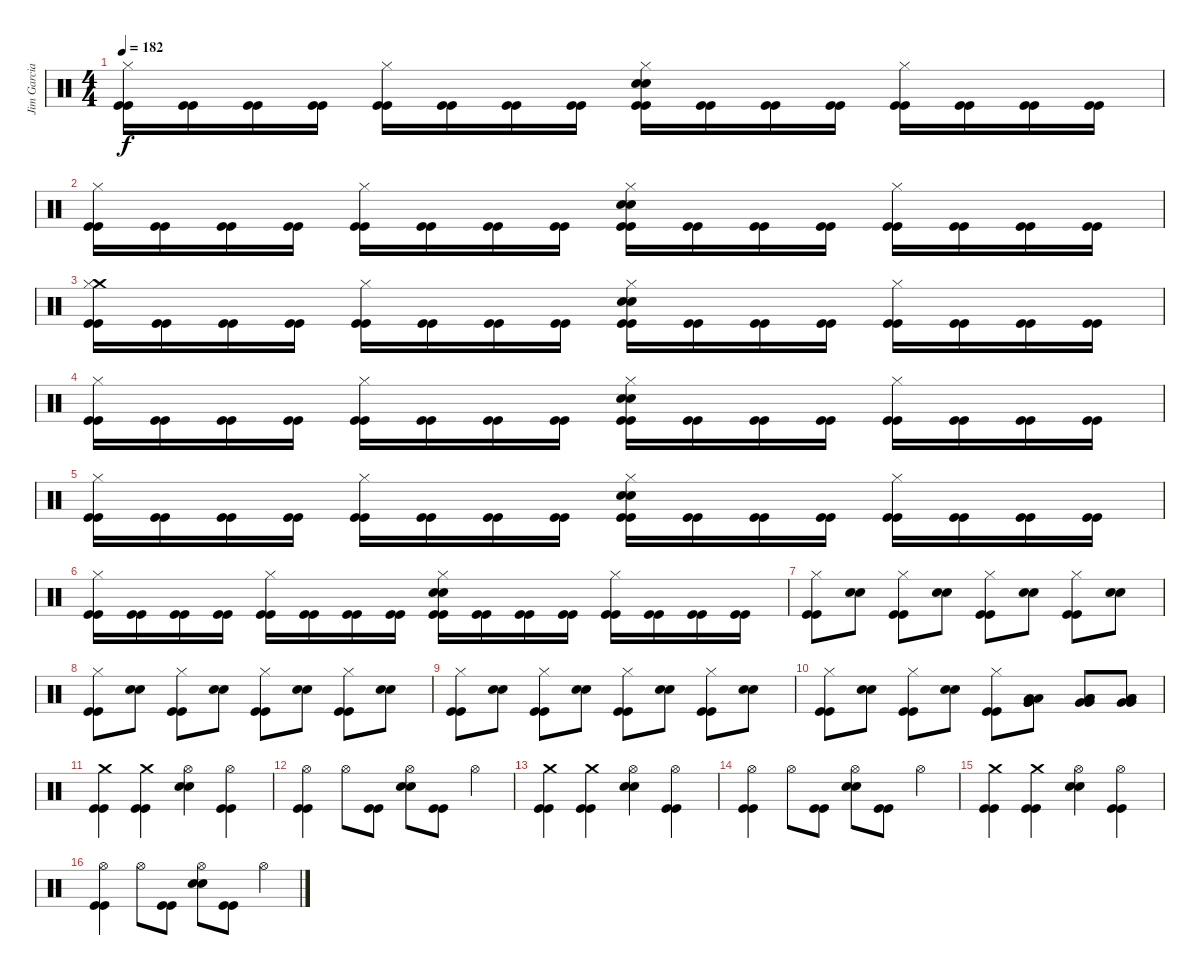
\track ("Jim Garcia" "Jim Garcia") {instrument percussion}
\staff {score}
\articulation defaults
\ts (4 4)
\tempo 182
\clef neutral
\ks c
("Hi-Hat (closed)" "Kick (hit)" "Kick (hit)").16{dy f} ("Kick (hit)" "Kick (hit)").16 ("Kick (hit)" "Kick (hit)").16 ("Kick (hit)" "Kick (hit)").16 ("Hi-Hat (closed)" "Kick (hit)" "Kick (hit)").16 ("Kick (hit)" "Kick (hit)").16 ("Kick (hit)" "Kick (hit)").16 ("Kick (hit)" "Kick (hit)").16 ("Snare (hit) 2" "Snare (hit) 2" "Hi-Hat (closed)" "Kick (hit)" "Kick (hit)").16 ("Kick (hit)" "Kick (hit)").16 ("Kick (hit)" "Kick (hit)").16 ("Kick (hit)" "Kick (hit)").16 ("Hi-Hat (closed)" "Kick (hit)" "Kick (hit)").16 ("Kick (hit)" "Kick (hit)").16 ("Kick (hit)" "Kick (hit)").16 ("Kick (hit)" "Kick (hit)").16 |
("Hi-Hat (closed)" "Kick (hit)" "Kick (hit)").16 ("Kick (hit)" "Kick (hit)").16 ("Kick (hit)" "Kick (hit)").16 ("Kick (hit)" "Kick (hit)").16 ("Hi-Hat (closed)" "Kick (hit)" "Kick (hit)").16 ("Kick (hit)" "Kick (hit)").16 ("Kick (hit)" "Kick (hit)").16 ("Kick (hit)" "Kick (hit)").16 ("Snare (hit) 2" "Snare (hit) 2" "Hi-Hat (closed)" "Kick (hit)" "Kick (hit)").16 ("Kick (hit)" "Kick (hit)").16 ("Kick (hit)" "Kick (hit)").16 ("Kick (hit)" "Kick (hit)").16 ("Hi-Hat (closed)" "Kick (hit)" "Kick (hit)").16 ("Kick (hit)" "Kick (hit)").16 ("Kick (hit)" "Kick (hit)").16 ("Kick (hit)" "Kick (hit)").16 |
("Crash medium (hit)" "Hi-Hat (closed)" "Kick (hit)" "Kick (hit)").16 ("Kick (hit)" "Kick (hit)").16 ("Kick (hit)" "Kick (hit)").16 ("Kick (hit)" "Kick (hit)").16 ("Hi-Hat (closed)" "Kick (hit)" "Kick (hit)").16 ("Kick (hit)" "Kick (hit)").16 ("Kick (hit)" "Kick (hit)").16 ("Kick (hit)" "Kick (hit)").16 ("Snare (hit) 2" "Snare (hit) 2" "Hi-Hat (closed)" "Kick (hit)" "Kick (hit)").16 ("Kick (hit)" "Kick (hit)").16 ("Kick (hit)" "Kick (hit)").16 ("Kick (hit)" "Kick (hit)").16 ("Hi-Hat (closed)" "Kick (hit)" "Kick (hit)").16 ("Kick (hit)" "Kick (hit)").16 ("Kick (hit)" "Kick (hit)").16 ("Kick (hit)" "Kick (hit)").16 |
("Hi-Hat (closed)" "Kick (hit)" "Kick (hit)").16 ("Kick (hit)" "Kick (hit)").16 ("Kick (hit)" "Kick (hit)").16 ("Kick (hit)" "Kick (hit)").16 ("Hi-Hat (closed)" "Kick (hit)" "Kick (hit)").16 ("Kick (hit)" "Kick (hit)").16 ("Kick (hit)" "Kick (hit)").16 ("Kick (hit)" "Kick (hit)").16 ("Snare (hit) 2" "Snare (hit) 2" "Hi-Hat (closed)" "Kick (hit)" "Kick (hit)").16 ("Kick (hit)" "Kick (hit)").16 ("Kick (hit)" "Kick (hit)").16 ("Kick (hit)" "Kick (hit)").16 ("Hi-Hat (closed)" "Kick (hit)" "Kick (hit)").16 ("Kick (hit)" "Kick (hit)").16 ("Kick (hit)" "Kick (hit)").16 ("Kick (hit)" "Kick (hit)").16 |
("Hi-Hat (closed)" "Kick (hit)" "Kick (hit)").16 ("Kick (hit)" "Kick (hit)").16 ("Kick (hit)" "Kick (hit)").16 ("Kick (hit)" "Kick (hit)").16 ("Hi-Hat (closed)" "Kick (hit)" "Kick (hit)").16 ("Kick (hit)" "Kick (hit)").16 ("Kick (hit)" "Kick (hit)").16 ("Kick (hit)" "Kick (hit)").16 ("Snare (hit) 2" "Snare (hit) 2" "Hi-Hat (closed)" "Kick (hit)" "Kick (hit)").16 ("Kick (hit)" "Kick (hit)").16 ("Kick (hit)" "Kick (hit)").16 ("Kick (hit)" "Kick (hit)").16 ("Hi-Hat (closed)" "Kick (hit)" "Kick (hit)").16 ("Kick (hit)" "Kick (hit)").16 ("Kick (hit)" "Kick (hit)").16 ("Kick (hit)" "Kick (hit)").16 |
("Hi-Hat (closed)" "Kick (hit)" "Kick (hit)").16 ("Kick (hit)" "Kick (hit)").16 ("Kick (hit)" "Kick (hit)").16 ("Kick (hit)" "Kick (hit)").16 ("Hi-Hat (closed)" "Kick (hit)" "Kick (hit)").16 ("Kick (hit)" "Kick (hit)").16 ("Kick (hit)" "Kick (hit)").16 ("Kick (hit)" "Kick (hit)").16 ("Snare (hit) 2" "Snare (hit) 2" "Hi-Hat (closed)" "Kick (hit)" "Kick (hit)").16 ("Kick (hit)" "Kick (hit)").16 ("Kick (hit)" "Kick (hit)").16 ("Kick (hit)" "Kick (hit)").16 ("Hi-Hat (closed)" "Kick (hit)" "Kick (hit)").16 ("Kick (hit)" "Kick (hit)").16 ("Kick (hit)" "Kick (hit)").16 ("Kick (hit)" "Kick (hit)").16 |
("Hi-Hat (closed)" "Kick (hit)" "Kick (hit)").8 ("Snare (hit) 2" "Snare (hit) 2").8 ("Hi-Hat (closed)" "Kick (hit)" "Kick (hit)").8 ("Snare (hit) 2" "Snare (hit) 2").8 ("Hi-Hat (closed)" "Kick (hit)" "Kick (hit)").8 ("Snare (hit) 2" "Snare (hit) 2").8 ("Hi-Hat (closed)" "Kick (hit)" "Kick (hit)").8 ("Snare (hit) 2" "Snare (hit) 2").8 |
("Hi-Hat (closed)" "Kick (hit)" "Kick (hit)").8 ("Snare (hit) 2" "Snare (hit) 2").8 ("Hi-Hat (closed)" "Kick (hit)" "Kick (hit)").8 ("Snare (hit) 2" "Snare (hit) 2").8 ("Hi-Hat (closed)" "Kick (hit)" "Kick (hit)").8 ("Snare (hit) 2" "Snare (hit) 2").8 ("Hi-Hat (closed)" "Kick (hit)" "Kick (hit)").8 ("Snare (hit) 2" "Snare (hit) 2").8 |
("Hi-Hat (closed)" "Kick (hit)" "Kick (hit)").8 ("Snare (hit) 2" "Snare (hit) 2").8 ("Hi-Hat (closed)" "Kick (hit)" "Kick (hit)").8 ("Snare (hit) 2" "Snare (hit) 2").8 ("Hi-Hat (closed)" "Kick (hit)" "Kick (hit)").8 ("Snare (hit) 2" "Snare (hit) 2").8 ("Hi-Hat (closed)" "Kick (hit)" "Kick (hit)").8 ("Snare (hit) 2" "Snare (hit) 2").8 |
("Hi-Hat (closed)" "Kick (hit)" "Kick (hit)").8 ("Snare (hit) 2" "Snare (hit) 2").8 ("Hi-Hat (closed)" "Kick (hit)" "Kick (hit)").8 ("Snare (hit) 2" "Snare (hit) 2").8 ("Hi-Hat (closed)" "Kick (hit)" "Kick (hit)").8 ("Very Low Tom (hit)" "Very Low Tom (hit)" "Low Floor Tom (hit)" "Low Floor Tom (hit)").8 ("Very Low Tom (hit)" "Very Low Tom (hit)" "Low Floor Tom (hit)" "Low Floor Tom (hit)").8 ("Very Low Tom (hit)" "Very Low Tom (hit)" "Low Floor Tom (hit)" "Low Floor Tom (hit)").8 |
("Crash medium (hit)" "Kick (hit)" "Kick (hit)").4 ("Crash medium (hit)" "Kick (hit)" "Kick (hit)").4 ("Snare (hit) 2" "Snare (hit) 2" "Hi-Hat (open)").4 ("Hi-Hat (open)" "Kick (hit)" "Kick (hit)").4 |
("Hi-Hat (open)" "Kick (hit)" "Kick (hit)").4 "Hi-Hat (open)".8 ("Kick (hit)" "Kick (hit)").8 ("Snare (hit) 2" "Snare (hit) 2" "Hi-Hat (open)").8 ("Kick (hit)" "Kick (hit)").8 "Hi-Hat (open)".4 |
("Crash medium (hit)" "Kick (hit)" "Kick (hit)").4 ("Crash medium (hit)" "Kick (hit)" "Kick (hit)").4 ("Snare (hit) 2" "Snare (hit) 2" "Hi-Hat (open)").4 ("Hi-Hat (open)" "Kick (hit)" "Kick (hit)").4 |
("Hi-Hat (open)" "Kick (hit)" "Kick (hit)").4 "Hi-Hat (open)".8 ("Kick (hit)" "Kick (hit)").8 ("Snare (hit) 2" "Snare (hit) 2" "Hi-Hat (open)").8 ("Kick (hit)" "Kick (hit)").8 "Hi-Hat (open)".4 |
("Crash medium (hit)" "Kick (hit)" "Kick (hit)").4 ("Crash medium (hit)" "Kick (hit)" "Kick (hit)").4 ("Snare (hit) 2" "Snare (hit) 2" "Hi-Hat (open)").4 ("Hi-Hat (open)" "Kick (hit)" "Kick (hit)").4 |
("Hi-Hat (open)" "Kick (hit)" "Kick (hit)").4 "Hi-Hat (open)".8 ("Kick (hit)" "Kick (hit)").8 ("Snare (hit) 2" "Snare (hit) 2" "Hi-Hat (open)").8 ("Kick (hit)" "Kick (hit)").8 "Hi-Hat (open)".4
